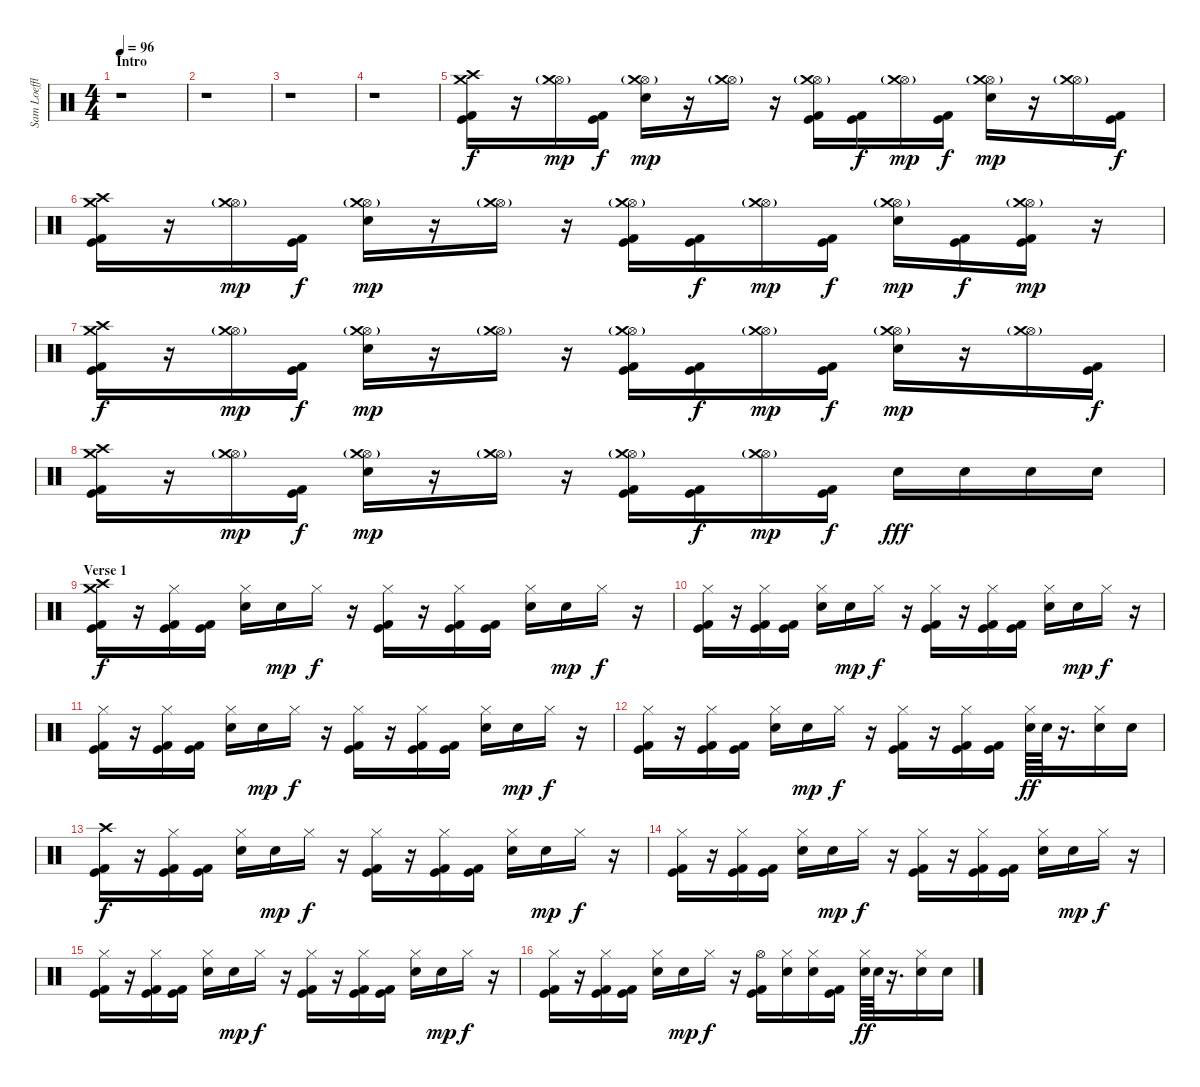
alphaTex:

\track ("Sam Loeffler - Drums" "Sam Loeffl") {instrument percussion}
\staff {score}
\articulation defaults
\ts (4 4)
\section ("" "Intro")
\tempo 96
\clef neutral
\ks c
r.1{dy f} |
r.1 |
r.1 |
r.1 |
("Crash high (hit)" "Crash medium (hit)" "Kick (hit)" "Kick (hit) 2").16 r.16 ("Hi-Hat (open)" "Crash medium (hit)"{g}).16{dy mp} ("Kick (hit)" "Kick (hit) 2").16{dy f} ("Hi-Hat (open)" "Crash medium (hit)"{g} "Electric Snare (hit)").16{dy mp} r.16 ("Hi-Hat (open)" "Crash medium (hit)"{g}).16 r.16 ("Hi-Hat (open)" "Crash medium (hit)"{g} "Kick (hit)" "Kick (hit) 2").16 ("Kick (hit)" "Kick (hit) 2").16{dy f} ("Hi-Hat (open)" "Crash medium (hit)"{g}).16{dy mp} ("Kick (hit)" "Kick (hit) 2").16{dy f} ("Hi-Hat (open)" "Crash medium (hit)"{g} "Electric Snare (hit)").16{dy mp} r.16 ("Hi-Hat (open)" "Crash medium (hit)"{g}).16 ("Kick (hit)" "Kick (hit) 2").16{dy f} |
("Crash high (hit)" "Crash medium (hit)" "Kick (hit)" "Kick (hit) 2").16 r.16 ("Hi-Hat (open)" "Crash medium (hit)"{g}).16{dy mp} ("Kick (hit)" "Kick (hit) 2").16{dy f} ("Hi-Hat (open)" "Crash medium (hit)"{g} "Electric Snare (hit)").16{dy mp} r.16 ("Hi-Hat (open)" "Crash medium (hit)"{g}).16 r.16 ("Hi-Hat (open)" "Crash medium (hit)"{g} "Kick (hit)" "Kick (hit) 2").16 ("Kick (hit)" "Kick (hit) 2").16{dy f} ("Hi-Hat (open)" "Crash medium (hit)"{g}).16{dy mp} ("Kick (hit)" "Kick (hit) 2").16{dy f} ("Hi-Hat (open)" "Crash medium (hit)"{g} "Electric Snare (hit)").16{dy mp} ("Kick (hit)" "Kick (hit) 2").16{dy f} ("Hi-Hat (open)" "Crash medium (hit)"{g} "Kick (hit)" "Kick (hit) 2").16{dy mp} r.16 |
("Crash high (hit)" "Crash medium (hit)" "Kick (hit)" "Kick (hit) 2").16{dy f} r.16 ("Hi-Hat (open)" "Crash medium (hit)"{g}).16{dy mp} ("Kick (hit)" "Kick (hit) 2").16{dy f} ("Hi-Hat (open)" "Crash medium (hit)"{g} "Electric Snare (hit)").16{dy mp} r.16 ("Hi-Hat (open)" "Crash medium (hit)"{g}).16 r.16 ("Hi-Hat (open)" "Crash medium (hit)"{g} "Kick (hit)" "Kick (hit) 2").16 ("Kick (hit)" "Kick (hit) 2").16{dy f} ("Hi-Hat (open)" "Crash medium (hit)"{g}).16{dy mp} ("Kick (hit)" "Kick (hit) 2").16{dy f} ("Hi-Hat (open)" "Crash medium (hit)"{g} "Electric Snare (hit)").16{dy mp} r.16 ("Hi-Hat (open)" "Crash medium (hit)"{g}).16 ("Kick (hit)" "Kick (hit) 2").16{dy f} |
("Crash high (hit)" "Crash medium (hit)" "Kick (hit)" "Kick (hit) 2").16 r.16 ("Hi-Hat (open)" "Crash medium (hit)"{g}).16{dy mp} ("Kick (hit)" "Kick (hit) 2").16{dy f} ("Hi-Hat (open)" "Crash medium (hit)"{g} "Electric Snare (hit)").16{dy mp} r.16 ("Hi-Hat (open)" "Crash medium (hit)"{g}).16 r.16 ("Hi-Hat (open)" "Crash medium (hit)"{g} "Kick (hit)" "Kick (hit) 2").16 ("Kick (hit)" "Kick (hit) 2").16{dy f} ("Hi-Hat (open)" "Crash medium (hit)"{g}).16{dy mp} ("Kick (hit)" "Kick (hit) 2").16{dy f} "Electric Snare (hit)".16{dy fff} "Electric Snare (hit)".16 "Electric Snare (hit)".16 "Electric Snare (hit)".16 |
\section ("" "Verse 1")
("Crash high (hit)" "Crash medium (hit)" "Kick (hit)" "Kick (hit) 2").16{dy f} r.16 ("Hi-Hat (closed)" "Kick (hit)" "Kick (hit) 2").16 ("Kick (hit)" "Kick (hit) 2").16 ("Hi-Hat (closed)" "Electric Snare (hit)").16 "Electric Snare (hit)".16{dy mp} "Hi-Hat (closed)".16{dy f} r.16 ("Hi-Hat (closed)" "Kick (hit)" "Kick (hit) 2").16 r.16 ("Hi-Hat (closed)" "Kick (hit)" "Kick (hit) 2").16 ("Kick (hit)" "Kick (hit) 2").16 ("Hi-Hat (closed)" "Electric Snare (hit)").16 "Electric Snare (hit)".16{dy mp} "Hi-Hat (closed)".16{dy f} r.16 |
("Hi-Hat (closed)" "Kick (hit)" "Kick (hit) 2").16 r.16 ("Hi-Hat (closed)" "Kick (hit)" "Kick (hit) 2").16 ("Kick (hit)" "Kick (hit) 2").16 ("Hi-Hat (closed)" "Electric Snare (hit)").16 "Electric Snare (hit)".16{dy mp} "Hi-Hat (closed)".16{dy f} r.16 ("Hi-Hat (closed)" "Kick (hit)" "Kick (hit) 2").16 r.16 ("Hi-Hat (closed)" "Kick (hit)" "Kick (hit) 2").16 ("Kick (hit)" "Kick (hit) 2").16 ("Hi-Hat (closed)" "Electric Snare (hit)").16 "Electric Snare (hit)".16{dy mp} "Hi-Hat (closed)".16{dy f} r.16 |
("Hi-Hat (closed)" "Kick (hit)" "Kick (hit) 2").16 r.16 ("Hi-Hat (closed)" "Kick (hit)" "Kick (hit) 2").16 ("Kick (hit)" "Kick (hit) 2").16 ("Hi-Hat (closed)" "Electric Snare (hit)").16 "Electric Snare (hit)".16{dy mp} "Hi-Hat (closed)".16{dy f} r.16 ("Hi-Hat (closed)" "Kick (hit)" "Kick (hit) 2").16 r.16 ("Hi-Hat (closed)" "Kick (hit)" "Kick (hit) 2").16 ("Kick (hit)" "Kick (hit) 2").16 ("Hi-Hat (closed)" "Electric Snare (hit)").16 "Electric Snare (hit)".16{dy mp} "Hi-Hat (closed)".16{dy f} r.16 |
("Hi-Hat (closed)" "Kick (hit)" "Kick (hit) 2").16 r.16 ("Hi-Hat (closed)" "Kick (hit)" "Kick (hit) 2").16 ("Kick (hit)" "Kick (hit) 2").16 ("Hi-Hat (closed)" "Electric Snare (hit)").16 "Electric Snare (hit)".16{dy mp} "Hi-Hat (closed)".16{dy f} r.16 ("Hi-Hat (closed)" "Kick (hit)" "Kick (hit) 2").16 r.16 ("Hi-Hat (closed)" "Kick (hit)" "Kick (hit) 2").16 ("Kick (hit)" "Kick (hit) 2").16 ("Hi-Hat (closed)" "Electric Snare (hit)").64{dy ff} "Electric Snare (hit)".64 r.16{d} ("Hi-Hat (closed)" "Electric Snare (hit)").16 "Electric Snare (hit)".16 |
("Crash high (hit)" "Kick (hit)" "Kick (hit) 2").16{dy f} r.16 ("Hi-Hat (closed)" "Kick (hit)" "Kick (hit) 2").16 ("Kick (hit)" "Kick (hit) 2").16 ("Hi-Hat (closed)" "Electric Snare (hit)").16 "Electric Snare (hit)".16{dy mp} "Hi-Hat (closed)".16{dy f} r.16 ("Hi-Hat (closed)" "Kick (hit)" "Kick (hit) 2").16 r.16 ("Hi-Hat (closed)" "Kick (hit)" "Kick (hit) 2").16 ("Kick (hit)" "Kick (hit) 2").16 ("Hi-Hat (closed)" "Electric Snare (hit)").16 "Electric Snare (hit)".16{dy mp} "Hi-Hat (closed)".16{dy f} r.16 |
("Hi-Hat (closed)" "Kick (hit)" "Kick (hit) 2").16 r.16 ("Hi-Hat (closed)" "Kick (hit)" "Kick (hit) 2").16 ("Kick (hit)" "Kick (hit) 2").16 ("Hi-Hat (closed)" "Electric Snare (hit)").16 "Electric Snare (hit)".16{dy mp} "Hi-Hat (closed)".16{dy f} r.16 ("Hi-Hat (closed)" "Kick (hit)" "Kick (hit) 2").16 r.16 ("Hi-Hat (closed)" "Kick (hit)" "Kick (hit) 2").16 ("Kick (hit)" "Kick (hit) 2").16 ("Hi-Hat (closed)" "Electric Snare (hit)").16 "Electric Snare (hit)".16{dy mp} "Hi-Hat (closed)".16{dy f} r.16 |
("Hi-Hat (closed)" "Kick (hit)" "Kick (hit) 2").16 r.16 ("Hi-Hat (closed)" "Kick (hit)" "Kick (hit) 2").16 ("Kick (hit)" "Kick (hit) 2").16 ("Hi-Hat (closed)" "Electric Snare (hit)").16 "Electric Snare (hit)".16{dy mp} "Hi-Hat (closed)".16{dy f} r.16 ("Hi-Hat (closed)" "Kick (hit)" "Kick (hit) 2").16 r.16 ("Hi-Hat (closed)" "Kick (hit)" "Kick (hit) 2").16 ("Kick (hit)" "Kick (hit) 2").16 ("Hi-Hat (closed)" "Electric Snare (hit)").16 "Electric Snare (hit)".16{dy mp} "Hi-Hat (closed)".16{dy f} r.16 |
("Hi-Hat (closed)" "Kick (hit)" "Kick (hit) 2").16 r.16 ("Hi-Hat (closed)" "Kick (hit)" "Kick (hit) 2").16 ("Kick (hit)" "Kick (hit) 2").16 ("Hi-Hat (closed)" "Electric Snare (hit)").16 "Electric Snare (hit)".16{dy mp} "Hi-Hat (closed)".16{dy f} r.16 ("Hi-Hat (open)" "Kick (hit)" "Kick (hit) 2").16 ("Hi-Hat (closed)" "Electric Snare (hit)").16 ("Hi-Hat (closed)" "Electric Snare (hit)").16 ("Kick (hit)" "Kick (hit) 2").16 ("Hi-Hat (closed)" "Electric Snare (hit)").64{dy ff} "Electric Snare (hit)".64 r.16{d} ("Hi-Hat (closed)" "Electric Snare (hit)").16 "Electric Snare (hit)".16
